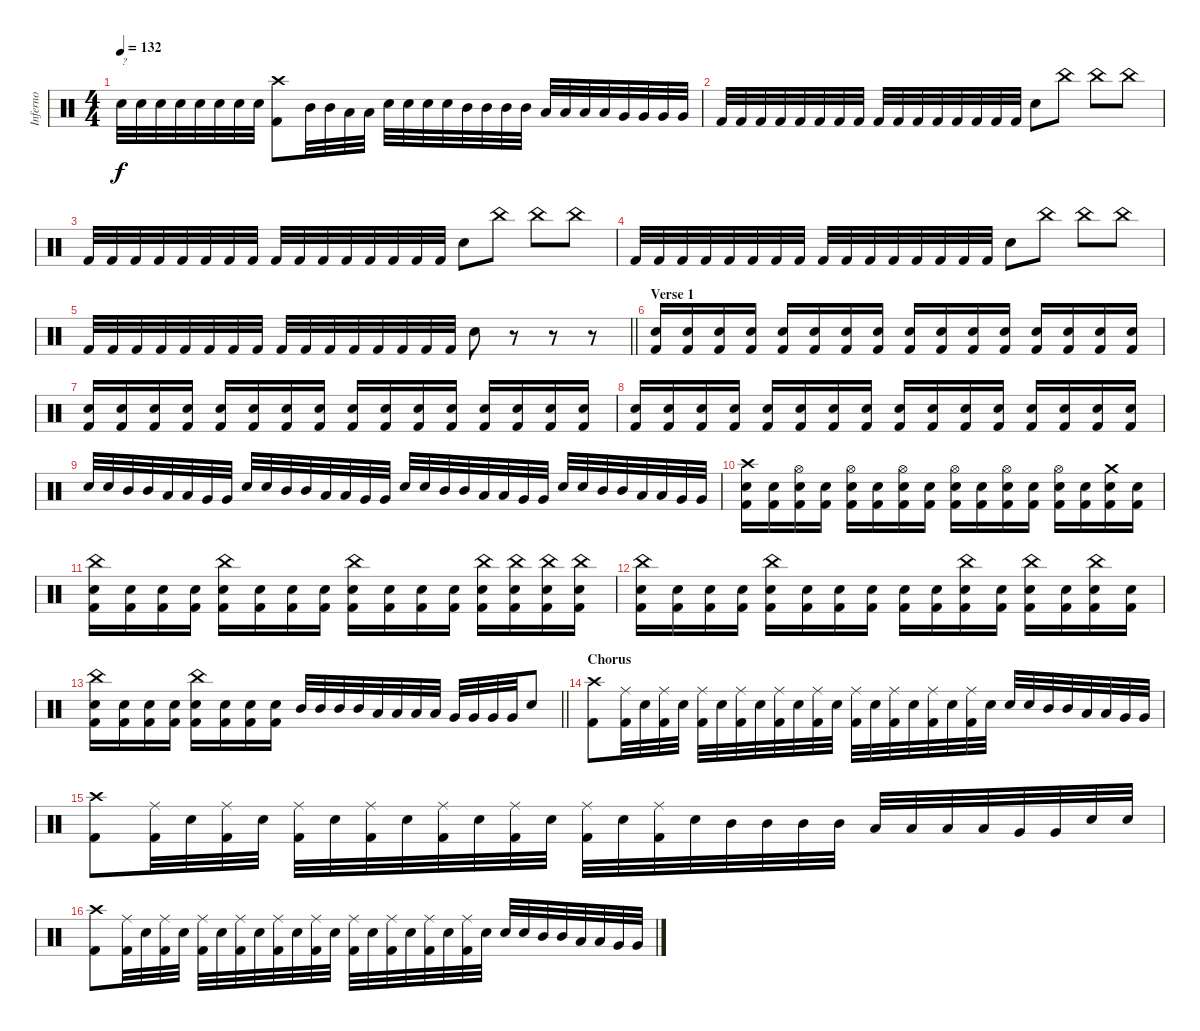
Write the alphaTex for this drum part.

\track ("Inferno" "Inferno") {instrument percussion}
\staff {score}
\articulation defaults
\ts (4 4)
\tempo 132
\clef neutral
\ks c "Electric Snare (hit)".32{txt "?" dy f} "Electric Snare (hit)".32 "Electric Snare (hit)".32 "Electric Snare (hit)".32 "Electric Snare (hit)".32 "Electric Snare (hit)".32 "Electric Snare (hit)".32 "Electric Snare (hit)".32
("Crash high (hit)" "Kick (hit) 2").8 "Mid Tom (hit)".32 "Mid Tom (hit)".32 "Low Tom (hit)".32 "Low Tom (hit)".32 "Electric Snare (hit)".32 "Electric Snare (hit)".32 "Electric Snare (hit)".32 "Electric Snare (hit)".32 "Mid Tom (hit)".32 "Mid Tom (hit)".32 "Mid Tom (hit)".32 "Mid Tom (hit)".32 "Low Tom (hit)".32 "Low Tom (hit)".32 "Low Tom (hit)".32 "Low Tom (hit)".32 "Very Low Tom (hit)".32 "Very Low Tom (hit)".32 "Very Low Tom (hit)".32 "Very Low Tom (hit)".32 |
"Kick (hit) 2".32 "Kick (hit) 2".32 "Kick (hit) 2".32 "Kick (hit) 2".32 "Kick (hit) 2".32 "Kick (hit) 2".32 "Kick (hit) 2".32 "Kick (hit) 2".32 "Kick (hit) 2".32 "Kick (hit) 2".32 "Kick (hit) 2".32 "Kick (hit) 2".32 "Kick (hit) 2".32 "Kick (hit) 2".32 "Kick (hit) 2".32 "Kick (hit) 2".32 "Electric Snare (hit)".8 "China (hit)".8 "China (hit)".8 "China (hit)".8 |
"Kick (hit) 2".32 "Kick (hit) 2".32 "Kick (hit) 2".32 "Kick (hit) 2".32 "Kick (hit) 2".32 "Kick (hit) 2".32 "Kick (hit) 2".32 "Kick (hit) 2".32 "Kick (hit) 2".32 "Kick (hit) 2".32 "Kick (hit) 2".32 "Kick (hit) 2".32 "Kick (hit) 2".32 "Kick (hit) 2".32 "Kick (hit) 2".32 "Kick (hit) 2".32 "Electric Snare (hit)".8 "China (hit)".8 "China (hit)".8 "China (hit)".8 |
"Kick (hit) 2".32 "Kick (hit) 2".32 "Kick (hit) 2".32 "Kick (hit) 2".32 "Kick (hit) 2".32 "Kick (hit) 2".32 "Kick (hit) 2".32 "Kick (hit) 2".32 "Kick (hit) 2".32 "Kick (hit) 2".32 "Kick (hit) 2".32 "Kick (hit) 2".32 "Kick (hit) 2".32 "Kick (hit) 2".32 "Kick (hit) 2".32 "Kick (hit) 2".32 "Electric Snare (hit)".8 "China (hit)".8 "China (hit)".8 "China (hit)".8 |
\barLineRight lightlight "Kick (hit) 2".32 "Kick (hit) 2".32 "Kick (hit) 2".32 "Kick (hit) 2".32 "Kick (hit) 2".32 "Kick (hit) 2".32 "Kick (hit) 2".32 "Kick (hit) 2".32 "Kick (hit) 2".32 "Kick (hit) 2".32 "Kick (hit) 2".32 "Kick (hit) 2".32 "Kick (hit) 2".32 "Kick (hit) 2".32 "Kick (hit) 2".32 "Kick (hit) 2".32 "Electric Snare (hit)".8
r.8 r.8 r.8 |
\section ("" "Verse 1")
("Electric Snare (hit)" "Kick (hit) 2").16 ("Electric Snare (hit)" "Kick (hit) 2").16 ("Electric Snare (hit)" "Kick (hit) 2").16 ("Electric Snare (hit)" "Kick (hit) 2").16 ("Electric Snare (hit)" "Kick (hit) 2").16 ("Electric Snare (hit)" "Kick (hit) 2").16 ("Electric Snare (hit)" "Kick (hit) 2").16 ("Electric Snare (hit)" "Kick (hit) 2").16 ("Electric Snare (hit)" "Kick (hit) 2").16 ("Electric Snare (hit)" "Kick (hit) 2").16 ("Electric Snare (hit)" "Kick (hit) 2").16 ("Electric Snare (hit)" "Kick (hit) 2").16 ("Electric Snare (hit)" "Kick (hit) 2").16 ("Electric Snare (hit)" "Kick (hit) 2").16 ("Electric Snare (hit)" "Kick (hit) 2").16 ("Electric Snare (hit)" "Kick (hit) 2").16 |
("Electric Snare (hit)" "Kick (hit) 2").16 ("Electric Snare (hit)" "Kick (hit) 2").16 ("Electric Snare (hit)" "Kick (hit) 2").16 ("Electric Snare (hit)" "Kick (hit) 2").16 ("Electric Snare (hit)" "Kick (hit) 2").16 ("Electric Snare (hit)" "Kick (hit) 2").16 ("Electric Snare (hit)" "Kick (hit) 2").16 ("Electric Snare (hit)" "Kick (hit) 2").16 ("Electric Snare (hit)" "Kick (hit) 2").16 ("Electric Snare (hit)" "Kick (hit) 2").16 ("Electric Snare (hit)" "Kick (hit) 2").16 ("Electric Snare (hit)" "Kick (hit) 2").16 ("Electric Snare (hit)" "Kick (hit) 2").16 ("Electric Snare (hit)" "Kick (hit) 2").16 ("Electric Snare (hit)" "Kick (hit) 2").16 ("Electric Snare (hit)" "Kick (hit) 2").16 |
("Electric Snare (hit)" "Kick (hit) 2").16 ("Electric Snare (hit)" "Kick (hit) 2").16 ("Electric Snare (hit)" "Kick (hit) 2").16 ("Electric Snare (hit)" "Kick (hit) 2").16 ("Electric Snare (hit)" "Kick (hit) 2").16 ("Electric Snare (hit)" "Kick (hit) 2").16 ("Electric Snare (hit)" "Kick (hit) 2").16 ("Electric Snare (hit)" "Kick (hit) 2").16 ("Electric Snare (hit)" "Kick (hit) 2").16 ("Electric Snare (hit)" "Kick (hit) 2").16 ("Electric Snare (hit)" "Kick (hit) 2").16 ("Electric Snare (hit)" "Kick (hit) 2").16 ("Electric Snare (hit)" "Kick (hit) 2").16 ("Electric Snare (hit)" "Kick (hit) 2").16 ("Electric Snare (hit)" "Kick (hit) 2").16 ("Electric Snare (hit)" "Kick (hit) 2").16 |
"Electric Snare (hit)".32 "Electric Snare (hit)".32 "Mid Tom (hit)".32 "Mid Tom (hit)".32 "Low Tom (hit)".32 "Low Tom (hit)".32 "Very Low Tom (hit)".32 "Very Low Tom (hit)".32 "Electric Snare (hit)".32 "Electric Snare (hit)".32 "Mid Tom (hit)".32 "Mid Tom (hit)".32 "Low Tom (hit)".32 "Low Tom (hit)".32 "Very Low Tom (hit)".32 "Very Low Tom (hit)".32 "Electric Snare (hit)".32 "Electric Snare (hit)".32 "Mid Tom (hit)".32 "Mid Tom (hit)".32 "Low Tom (hit)".32 "Low Tom (hit)".32 "Very Low Tom (hit)".32 "Very Low Tom (hit)".32 "Electric Snare (hit)".32 "Electric Snare (hit)".32 "Mid Tom (hit)".32 "Mid Tom (hit)".32 "Low Tom (hit)".32 "Low Tom (hit)".32 "Very Low Tom (hit)".32 "Very Low Tom (hit)".32 |
("Crash high (hit)" "Electric Snare (hit)" "Kick (hit) 2").16 ("Electric Snare (hit)" "Kick (hit) 2").16 ("Hi-Hat (open)" "Electric Snare (hit)" "Kick (hit) 2").16 ("Electric Snare (hit)" "Kick (hit) 2").16 ("Hi-Hat (open)" "Electric Snare (hit)" "Kick (hit) 2").16 ("Electric Snare (hit)" "Kick (hit) 2").16 ("Hi-Hat (open)" "Electric Snare (hit)" "Kick (hit) 2").16 ("Electric Snare (hit)" "Kick (hit) 2").16 ("Hi-Hat (open)" "Electric Snare (hit)" "Kick (hit) 2").16 ("Electric Snare (hit)" "Kick (hit) 2").16 ("Hi-Hat (open)" "Electric Snare (hit)" "Kick (hit) 2").16 ("Electric Snare (hit)" "Kick (hit) 2").16 ("Hi-Hat (open)" "Electric Snare (hit)" "Kick (hit) 2").16 ("Electric Snare (hit)" "Kick (hit) 2").16 ("Crash medium (hit)" "Electric Snare (hit)" "Kick (hit) 2").16 ("Electric Snare (hit)" "Kick (hit) 2").16 |
("China (hit)" "Electric Snare (hit)" "Kick (hit) 2").16 ("Electric Snare (hit)" "Kick (hit) 2").16 ("Electric Snare (hit)" "Kick (hit) 2").16 ("Electric Snare (hit)" "Kick (hit) 2").16 ("China (hit)" "Electric Snare (hit)" "Kick (hit) 2").16 ("Electric Snare (hit)" "Kick (hit) 2").16 ("Electric Snare (hit)" "Kick (hit) 2").16 ("Electric Snare (hit)" "Kick (hit) 2").16 ("China (hit)" "Electric Snare (hit)" "Kick (hit) 2").16 ("Electric Snare (hit)" "Kick (hit) 2").16 ("Electric Snare (hit)" "Kick (hit) 2").16 ("Electric Snare (hit)" "Kick (hit) 2").16 ("China (hit)" "Electric Snare (hit)" "Kick (hit) 2").16 ("China (hit)" "Electric Snare (hit)" "Kick (hit) 2").16 ("China (hit)" "Electric Snare (hit)" "Kick (hit) 2").16 ("China (hit)" "Electric Snare (hit)" "Kick (hit) 2").16 |
("China (hit)" "Electric Snare (hit)" "Kick (hit) 2").16 ("Electric Snare (hit)" "Kick (hit) 2").16 ("Electric Snare (hit)" "Kick (hit) 2").16 ("Electric Snare (hit)" "Kick (hit) 2").16 ("China (hit)" "Electric Snare (hit)" "Kick (hit) 2").16 ("Electric Snare (hit)" "Kick (hit) 2").16 ("Electric Snare (hit)" "Kick (hit) 2").16 ("Electric Snare (hit)" "Kick (hit) 2").16 ("Electric Snare (hit)" "Kick (hit) 2").16 ("Electric Snare (hit)" "Kick (hit) 2").16 ("China (hit)" "Electric Snare (hit)" "Kick (hit) 2").16 ("Electric Snare (hit)" "Kick (hit) 2").16 ("China (hit)" "Electric Snare (hit)" "Kick (hit) 2").16 ("Electric Snare (hit)" "Kick (hit) 2").16 ("China (hit)" "Electric Snare (hit)" "Kick (hit) 2").16 ("Electric Snare (hit)" "Kick (hit) 2").16 |
\barLineRight lightlight
("China (hit)" "Electric Snare (hit)" "Kick (hit) 2").16 ("Electric Snare (hit)" "Kick (hit) 2").16 ("Electric Snare (hit)" "Kick (hit) 2").16 ("Electric Snare (hit)" "Kick (hit) 2").16 ("China (hit)" "Electric Snare (hit)" "Kick (hit) 2").16 ("Electric Snare (hit)" "Kick (hit) 2").16 ("Electric Snare (hit)" "Kick (hit) 2").16 ("Electric Snare (hit)" "Kick (hit) 2").16 "Mid Tom (hit)".32 "Mid Tom (hit)".32 "Mid Tom (hit)".32 "Mid Tom (hit)".32 "Low Tom (hit)".32 "Low Tom (hit)".32 "Low Tom (hit)".32 "Low Tom (hit)".32 "Very Low Tom (hit)".32 "Very Low Tom (hit)".32 "Very Low Tom (hit)".32 "Very Low Tom (hit)".32 "Electric Snare (hit)".8 |
\section ("" "Chorus")
("Crash high (hit)" "Kick (hit) 2").8 ("Ride (middle)" "Kick (hit) 2").32 "Electric Snare (hit)".32 ("Ride (middle)" "Kick (hit) 2").32 "Electric Snare (hit)".32 ("Ride (middle)" "Kick (hit) 2").32 "Electric Snare (hit)".32 ("Ride (middle)" "Kick (hit) 2").32 "Electric Snare (hit)".32 ("Ride (middle)" "Kick (hit) 2").32 "Electric Snare (hit)".32 ("Ride (middle)" "Kick (hit) 2").32 "Electric Snare (hit)".32 ("Ride (middle)" "Kick (hit) 2").32 "Electric Snare (hit)".32 ("Ride (middle)" "Kick (hit) 2").32 "Electric Snare (hit)".32 ("Ride (middle)" "Kick (hit) 2").32 "Electric Snare (hit)".32 ("Ride (middle)" "Kick (hit) 2").32 "Electric Snare (hit)".32 "Electric Snare (hit)".32 "Electric Snare (hit)".32 "Mid Tom (hit)".32 "Mid Tom (hit)".32 "Low Tom (hit)".32 "Low Tom (hit)".32 "Very Low Tom (hit)".32 "Very Low Tom (hit)".32 |
("Crash high (hit)" "Kick (hit) 2").8 ("Ride (middle)" "Kick (hit) 2").32 "Electric Snare (hit)".32 ("Ride (middle)" "Kick (hit) 2").32 "Electric Snare (hit)".32 ("Ride (middle)" "Kick (hit) 2").32 "Electric Snare (hit)".32 ("Ride (middle)" "Kick (hit) 2").32 "Electric Snare (hit)".32 ("Ride (middle)" "Kick (hit) 2").32 "Electric Snare (hit)".32 ("Ride (middle)" "Kick (hit) 2").32 "Electric Snare (hit)".32 ("Ride (middle)" "Kick (hit) 2").32 "Electric Snare (hit)".32 ("Ride (middle)" "Kick (hit) 2").32 "Electric Snare (hit)".32 "Mid Tom (hit)".32 "Mid Tom (hit)".32 "Mid Tom (hit)".32 "Mid Tom (hit)".32 "Low Tom (hit)".32 "Low Tom (hit)".32 "Low Tom (hit)".32 "Low Tom (hit)".32 "Very Low Tom (hit)".32 "Very Low Tom (hit)".32 "Electric Snare (hit)".32 "Electric Snare (hit)".32 |
("Crash high (hit)" "Kick (hit) 2").8 ("Ride (middle)" "Kick (hit) 2").32 "Electric Snare (hit)".32 ("Ride (middle)" "Kick (hit) 2").32 "Electric Snare (hit)".32 ("Ride (middle)" "Kick (hit) 2").32 "Electric Snare (hit)".32 ("Ride (middle)" "Kick (hit) 2").32 "Electric Snare (hit)".32 ("Ride (middle)" "Kick (hit) 2").32 "Electric Snare (hit)".32 ("Ride (middle)" "Kick (hit) 2").32 "Electric Snare (hit)".32 ("Ride (middle)" "Kick (hit) 2").32 "Electric Snare (hit)".32 ("Ride (middle)" "Kick (hit) 2").32 "Electric Snare (hit)".32 ("Ride (middle)" "Kick (hit) 2").32 "Electric Snare (hit)".32 ("Ride (middle)" "Kick (hit) 2").32 "Electric Snare (hit)".32 "Electric Snare (hit)".32 "Electric Snare (hit)".32 "Mid Tom (hit)".32 "Mid Tom (hit)".32 "Low Tom (hit)".32 "Low Tom (hit)".32 "Very Low Tom (hit)".32 "Very Low Tom (hit)".32
